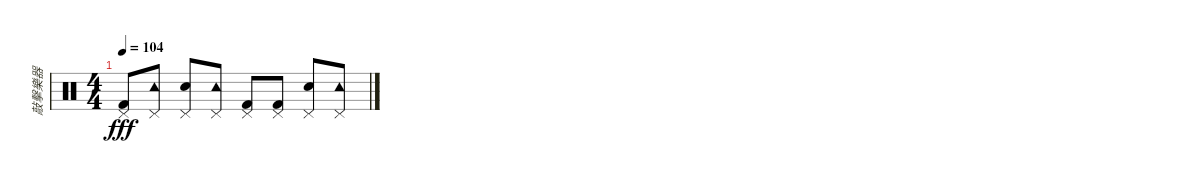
\track ("敲擊樂器" "敲擊樂器") {instrument percussion}
\staff {score}
\articulation defaults
\ts (4 4)
\tempo 104
\clef neutral
\ks c
("Kick (hit) 2" "Pedal Hi-Hat (hit)").8{dy fff} ("Tambourine (hit)" "Pedal Hi-Hat (hit)").8 ("Electric Snare (hit)" "Pedal Hi-Hat (hit)").8 ("Tambourine (hit)" "Pedal Hi-Hat (hit)").8 ("Kick (hit) 2" "Pedal Hi-Hat (hit)").8 ("Kick (hit) 2" "Pedal Hi-Hat (hit)").8 ("Electric Snare (hit)" "Pedal Hi-Hat (hit)").8 ("Tambourine (hit)" "Pedal Hi-Hat (hit)").8
